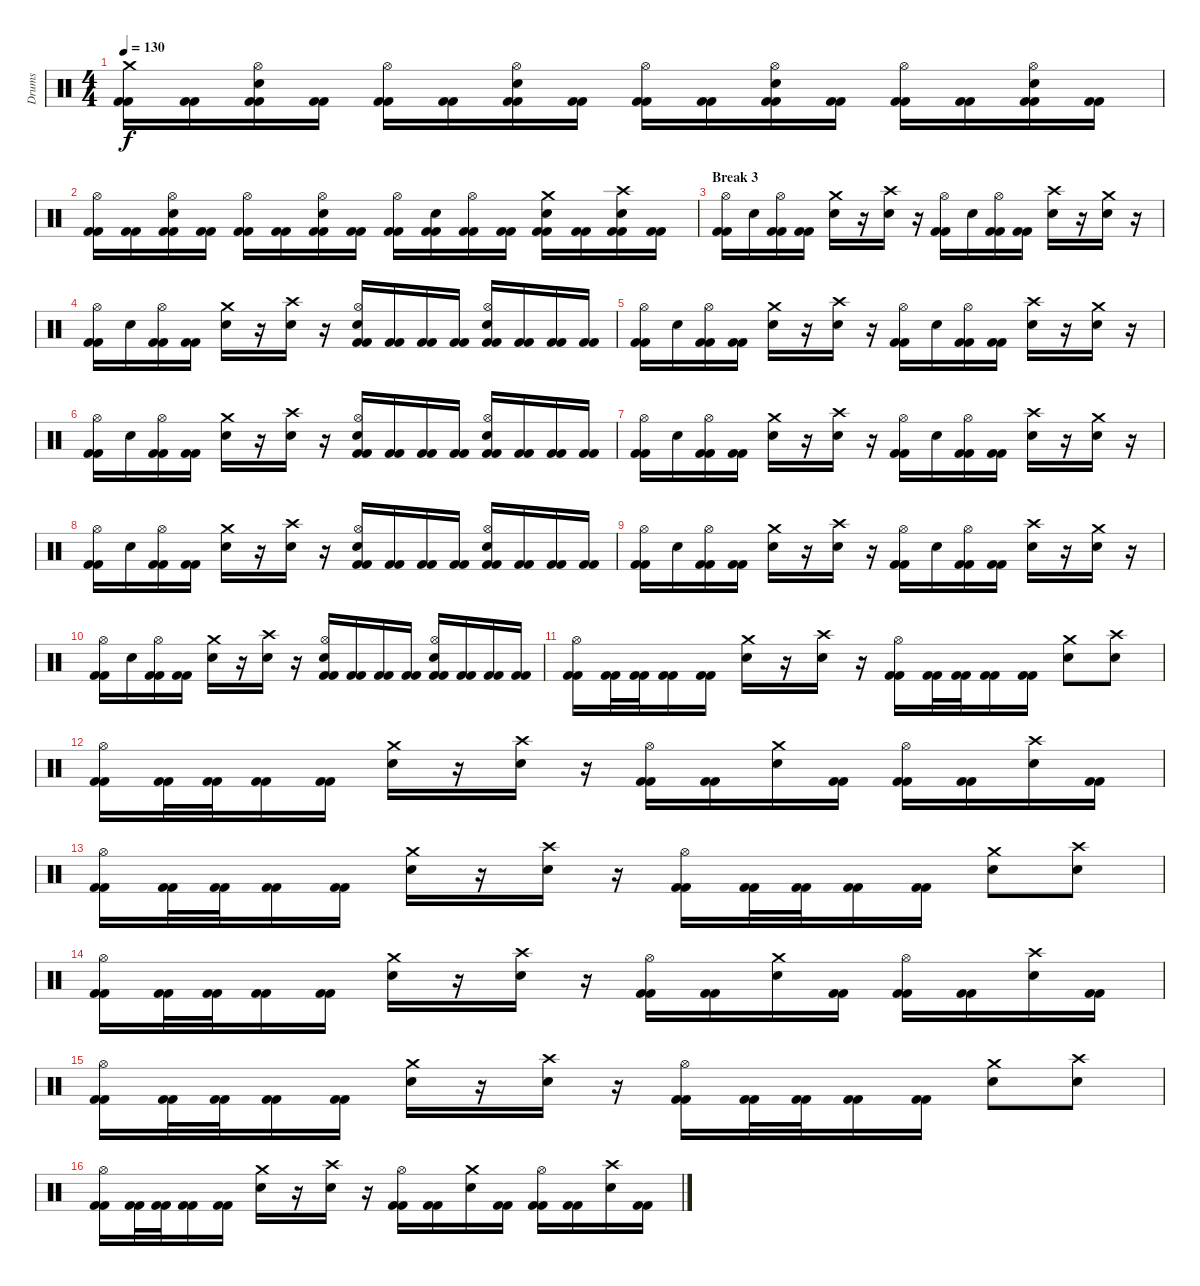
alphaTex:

\track ("Drums" "Drums") {instrument percussion}
\staff {score}
\articulation defaults
\ts (4 4)
\tempo 130
\clef neutral
\ks c
("Crash medium (hit)" "Kick (hit) 2" "Kick (hit) 2").16{dy f} ("Kick (hit) 2" "Kick (hit) 2").16 ("Hi-Hat (open)" "Electric Snare (hit)" "Kick (hit) 2" "Kick (hit) 2").16 ("Kick (hit) 2" "Kick (hit) 2").16 ("Hi-Hat (open)" "Kick (hit) 2" "Kick (hit) 2").16 ("Kick (hit) 2" "Kick (hit) 2").16 ("Hi-Hat (open)" "Electric Snare (hit)" "Kick (hit) 2" "Kick (hit) 2").16 ("Kick (hit) 2" "Kick (hit) 2").16 ("Hi-Hat (open)" "Kick (hit) 2" "Kick (hit) 2").16 ("Kick (hit) 2" "Kick (hit) 2").16 ("Hi-Hat (open)" "Electric Snare (hit)" "Kick (hit) 2" "Kick (hit) 2").16 ("Kick (hit) 2" "Kick (hit) 2").16 ("Hi-Hat (open)" "Kick (hit) 2" "Kick (hit) 2").16 ("Kick (hit) 2" "Kick (hit) 2").16 ("Hi-Hat (open)" "Electric Snare (hit)" "Kick (hit) 2" "Kick (hit) 2").16 ("Kick (hit) 2" "Kick (hit) 2").16 |
("Hi-Hat (open)" "Kick (hit) 2" "Kick (hit) 2").16 ("Kick (hit) 2" "Kick (hit) 2").16 ("Hi-Hat (open)" "Electric Snare (hit)" "Kick (hit) 2" "Kick (hit) 2").16 ("Kick (hit) 2" "Kick (hit) 2").16 ("Hi-Hat (open)" "Kick (hit) 2" "Kick (hit) 2").16 ("Kick (hit) 2" "Kick (hit) 2").16 ("Hi-Hat (open)" "Electric Snare (hit)" "Kick (hit) 2" "Kick (hit) 2").16 ("Kick (hit) 2" "Kick (hit) 2").16 ("Hi-Hat (open)" "Kick (hit) 2" "Kick (hit) 2").16 ("Electric Snare (hit)" "Kick (hit) 2" "Kick (hit) 2").16 ("Hi-Hat (open)" "Kick (hit) 2" "Kick (hit) 2").16 ("Kick (hit) 2" "Kick (hit) 2").16 ("Crash medium (hit)" "Electric Snare (hit)" "Kick (hit) 2" "Kick (hit) 2").16 ("Kick (hit) 2" "Kick (hit) 2").16 ("Crash high (hit)" "Electric Snare (hit)" "Kick (hit) 2" "Kick (hit) 2").16 ("Kick (hit) 2" "Kick (hit) 2").16 |
\section ("" "Break 3")
("Hi-Hat (open)" "Kick (hit) 2" "Kick (hit) 2").16 "Electric Snare (hit)".16 ("Hi-Hat (open)" "Kick (hit) 2" "Kick (hit) 2").16 ("Kick (hit) 2" "Kick (hit) 2").16 ("Crash medium (hit)" "Electric Snare (hit)").16 r.16 ("Crash high (hit)" "Electric Snare (hit)").16 r.16 ("Hi-Hat (open)" "Kick (hit) 2" "Kick (hit) 2").16 "Electric Snare (hit)".16 ("Hi-Hat (open)" "Kick (hit) 2" "Kick (hit) 2").16 ("Kick (hit) 2" "Kick (hit) 2").16 ("Crash high (hit)" "Electric Snare (hit)").16 r.16 ("Crash medium (hit)" "Electric Snare (hit)").16 r.16 |
("Hi-Hat (open)" "Kick (hit) 2" "Kick (hit) 2").16 "Electric Snare (hit)".16 ("Hi-Hat (open)" "Kick (hit) 2" "Kick (hit) 2").16 ("Kick (hit) 2" "Kick (hit) 2").16 ("Crash medium (hit)" "Electric Snare (hit)").16 r.16 ("Crash high (hit)" "Electric Snare (hit)").16 r.16 ("Hi-Hat (open)" "Electric Snare (hit)" "Kick (hit) 2" "Kick (hit) 2").16 ("Kick (hit) 2" "Kick (hit) 2").16 ("Kick (hit) 2" "Kick (hit) 2").16 ("Kick (hit) 2" "Kick (hit) 2").16 ("Hi-Hat (open)" "Electric Snare (hit)" "Kick (hit) 2" "Kick (hit) 2").16 ("Kick (hit) 2" "Kick (hit) 2").16 ("Kick (hit) 2" "Kick (hit) 2").16 ("Kick (hit) 2" "Kick (hit) 2").16 |
("Hi-Hat (open)" "Kick (hit) 2" "Kick (hit) 2").16 "Electric Snare (hit)".16 ("Hi-Hat (open)" "Kick (hit) 2" "Kick (hit) 2").16 ("Kick (hit) 2" "Kick (hit) 2").16 ("Crash medium (hit)" "Electric Snare (hit)").16 r.16 ("Crash high (hit)" "Electric Snare (hit)").16 r.16 ("Hi-Hat (open)" "Kick (hit) 2" "Kick (hit) 2").16 "Electric Snare (hit)".16 ("Hi-Hat (open)" "Kick (hit) 2" "Kick (hit) 2").16 ("Kick (hit) 2" "Kick (hit) 2").16 ("Crash high (hit)" "Electric Snare (hit)").16 r.16 ("Crash medium (hit)" "Electric Snare (hit)").16 r.16 |
("Hi-Hat (open)" "Kick (hit) 2" "Kick (hit) 2").16 "Electric Snare (hit)".16 ("Hi-Hat (open)" "Kick (hit) 2" "Kick (hit) 2").16 ("Kick (hit) 2" "Kick (hit) 2").16 ("Crash medium (hit)" "Electric Snare (hit)").16 r.16 ("Crash high (hit)" "Electric Snare (hit)").16 r.16 ("Hi-Hat (open)" "Electric Snare (hit)" "Kick (hit) 2" "Kick (hit) 2").16 ("Kick (hit) 2" "Kick (hit) 2").16 ("Kick (hit) 2" "Kick (hit) 2").16 ("Kick (hit) 2" "Kick (hit) 2").16 ("Hi-Hat (open)" "Electric Snare (hit)" "Kick (hit) 2" "Kick (hit) 2").16 ("Kick (hit) 2" "Kick (hit) 2").16 ("Kick (hit) 2" "Kick (hit) 2").16 ("Kick (hit) 2" "Kick (hit) 2").16 |
("Hi-Hat (open)" "Kick (hit) 2" "Kick (hit) 2").16 "Electric Snare (hit)".16 ("Hi-Hat (open)" "Kick (hit) 2" "Kick (hit) 2").16 ("Kick (hit) 2" "Kick (hit) 2").16 ("Crash medium (hit)" "Electric Snare (hit)").16 r.16 ("Crash high (hit)" "Electric Snare (hit)").16 r.16 ("Hi-Hat (open)" "Kick (hit) 2" "Kick (hit) 2").16 "Electric Snare (hit)".16 ("Hi-Hat (open)" "Kick (hit) 2" "Kick (hit) 2").16 ("Kick (hit) 2" "Kick (hit) 2").16 ("Crash high (hit)" "Electric Snare (hit)").16 r.16 ("Crash medium (hit)" "Electric Snare (hit)").16 r.16 |
("Hi-Hat (open)" "Kick (hit) 2" "Kick (hit) 2").16 "Electric Snare (hit)".16 ("Hi-Hat (open)" "Kick (hit) 2" "Kick (hit) 2").16 ("Kick (hit) 2" "Kick (hit) 2").16 ("Crash medium (hit)" "Electric Snare (hit)").16 r.16 ("Crash high (hit)" "Electric Snare (hit)").16 r.16 ("Hi-Hat (open)" "Electric Snare (hit)" "Kick (hit) 2" "Kick (hit) 2").16 ("Kick (hit) 2" "Kick (hit) 2").16 ("Kick (hit) 2" "Kick (hit) 2").16 ("Kick (hit) 2" "Kick (hit) 2").16 ("Hi-Hat (open)" "Electric Snare (hit)" "Kick (hit) 2" "Kick (hit) 2").16 ("Kick (hit) 2" "Kick (hit) 2").16 ("Kick (hit) 2" "Kick (hit) 2").16 ("Kick (hit) 2" "Kick (hit) 2").16 |
("Hi-Hat (open)" "Kick (hit) 2" "Kick (hit) 2").16 "Electric Snare (hit)".16 ("Hi-Hat (open)" "Kick (hit) 2" "Kick (hit) 2").16 ("Kick (hit) 2" "Kick (hit) 2").16 ("Crash medium (hit)" "Electric Snare (hit)").16 r.16 ("Crash high (hit)" "Electric Snare (hit)").16 r.16 ("Hi-Hat (open)" "Kick (hit) 2" "Kick (hit) 2").16 "Electric Snare (hit)".16 ("Hi-Hat (open)" "Kick (hit) 2" "Kick (hit) 2").16 ("Kick (hit) 2" "Kick (hit) 2").16 ("Crash high (hit)" "Electric Snare (hit)").16 r.16 ("Crash medium (hit)" "Electric Snare (hit)").16 r.16 |
("Hi-Hat (open)" "Kick (hit) 2" "Kick (hit) 2").16 "Electric Snare (hit)".16 ("Hi-Hat (open)" "Kick (hit) 2" "Kick (hit) 2").16 ("Kick (hit) 2" "Kick (hit) 2").16 ("Crash medium (hit)" "Electric Snare (hit)").16 r.16 ("Crash high (hit)" "Electric Snare (hit)").16 r.16 ("Hi-Hat (open)" "Electric Snare (hit)" "Kick (hit) 2" "Kick (hit) 2").16 ("Kick (hit) 2" "Kick (hit) 2").16 ("Kick (hit) 2" "Kick (hit) 2").16 ("Kick (hit) 2" "Kick (hit) 2").16 ("Hi-Hat (open)" "Electric Snare (hit)" "Kick (hit) 2" "Kick (hit) 2").16 ("Kick (hit) 2" "Kick (hit) 2").16 ("Kick (hit) 2" "Kick (hit) 2").16 ("Kick (hit) 2" "Kick (hit) 2").16 |
("Hi-Hat (open)" "Kick (hit) 2" "Kick (hit) 2").16 ("Kick (hit) 2" "Kick (hit) 2").32 ("Kick (hit) 2" "Kick (hit) 2").32 ("Kick (hit) 2" "Kick (hit) 2").16 ("Kick (hit) 2" "Kick (hit) 2").16 ("Crash medium (hit)" "Electric Snare (hit)").16 r.16 ("Crash high (hit)" "Electric Snare (hit)").16 r.16 ("Hi-Hat (open)" "Kick (hit) 2" "Kick (hit) 2").16 ("Kick (hit) 2" "Kick (hit) 2").32 ("Kick (hit) 2" "Kick (hit) 2").32 ("Kick (hit) 2" "Kick (hit) 2").16 ("Kick (hit) 2" "Kick (hit) 2").16 ("Crash medium (hit)" "Electric Snare (hit)").8 ("Crash high (hit)" "Electric Snare (hit)").8 |
("Hi-Hat (open)" "Kick (hit) 2" "Kick (hit) 2").16 ("Kick (hit) 2" "Kick (hit) 2").32 ("Kick (hit) 2" "Kick (hit) 2").32 ("Kick (hit) 2" "Kick (hit) 2").16 ("Kick (hit) 2" "Kick (hit) 2").16 ("Crash medium (hit)" "Electric Snare (hit)").16 r.16 ("Crash high (hit)" "Electric Snare (hit)").16 r.16 ("Hi-Hat (open)" "Kick (hit) 2" "Kick (hit) 2").16 ("Kick (hit) 2" "Kick (hit) 2").16 ("Crash medium (hit)" "Electric Snare (hit)").16 ("Kick (hit) 2" "Kick (hit) 2").16 ("Hi-Hat (open)" "Kick (hit) 2" "Kick (hit) 2").16 ("Kick (hit) 2" "Kick (hit) 2").16 ("Crash high (hit)" "Electric Snare (hit)").16 ("Kick (hit) 2" "Kick (hit) 2").16 |
("Hi-Hat (open)" "Kick (hit) 2" "Kick (hit) 2").16 ("Kick (hit) 2" "Kick (hit) 2").32 ("Kick (hit) 2" "Kick (hit) 2").32 ("Kick (hit) 2" "Kick (hit) 2").16 ("Kick (hit) 2" "Kick (hit) 2").16 ("Crash medium (hit)" "Electric Snare (hit)").16 r.16 ("Crash high (hit)" "Electric Snare (hit)").16 r.16 ("Hi-Hat (open)" "Kick (hit) 2" "Kick (hit) 2").16 ("Kick (hit) 2" "Kick (hit) 2").32 ("Kick (hit) 2" "Kick (hit) 2").32 ("Kick (hit) 2" "Kick (hit) 2").16 ("Kick (hit) 2" "Kick (hit) 2").16 ("Crash medium (hit)" "Electric Snare (hit)").8 ("Crash high (hit)" "Electric Snare (hit)").8 |
("Hi-Hat (open)" "Kick (hit) 2" "Kick (hit) 2").16 ("Kick (hit) 2" "Kick (hit) 2").32 ("Kick (hit) 2" "Kick (hit) 2").32 ("Kick (hit) 2" "Kick (hit) 2").16 ("Kick (hit) 2" "Kick (hit) 2").16 ("Crash medium (hit)" "Electric Snare (hit)").16 r.16 ("Crash high (hit)" "Electric Snare (hit)").16 r.16 ("Hi-Hat (open)" "Kick (hit) 2" "Kick (hit) 2").16 ("Kick (hit) 2" "Kick (hit) 2").16 ("Crash medium (hit)" "Electric Snare (hit)").16 ("Kick (hit) 2" "Kick (hit) 2").16 ("Hi-Hat (open)" "Kick (hit) 2" "Kick (hit) 2").16 ("Kick (hit) 2" "Kick (hit) 2").16 ("Crash high (hit)" "Electric Snare (hit)").16 ("Kick (hit) 2" "Kick (hit) 2").16 |
("Hi-Hat (open)" "Kick (hit) 2" "Kick (hit) 2").16 ("Kick (hit) 2" "Kick (hit) 2").32 ("Kick (hit) 2" "Kick (hit) 2").32 ("Kick (hit) 2" "Kick (hit) 2").16 ("Kick (hit) 2" "Kick (hit) 2").16 ("Crash medium (hit)" "Electric Snare (hit)").16 r.16 ("Crash high (hit)" "Electric Snare (hit)").16 r.16 ("Hi-Hat (open)" "Kick (hit) 2" "Kick (hit) 2").16 ("Kick (hit) 2" "Kick (hit) 2").32 ("Kick (hit) 2" "Kick (hit) 2").32 ("Kick (hit) 2" "Kick (hit) 2").16 ("Kick (hit) 2" "Kick (hit) 2").16 ("Crash medium (hit)" "Electric Snare (hit)").8 ("Crash high (hit)" "Electric Snare (hit)").8 |
("Hi-Hat (open)" "Kick (hit) 2" "Kick (hit) 2").16 ("Kick (hit) 2" "Kick (hit) 2").32 ("Kick (hit) 2" "Kick (hit) 2").32 ("Kick (hit) 2" "Kick (hit) 2").16 ("Kick (hit) 2" "Kick (hit) 2").16 ("Crash medium (hit)" "Electric Snare (hit)").16 r.16 ("Crash high (hit)" "Electric Snare (hit)").16 r.16 ("Hi-Hat (open)" "Kick (hit) 2" "Kick (hit) 2").16 ("Kick (hit) 2" "Kick (hit) 2").16 ("Crash medium (hit)" "Electric Snare (hit)").16 ("Kick (hit) 2" "Kick (hit) 2").16 ("Hi-Hat (open)" "Kick (hit) 2" "Kick (hit) 2").16 ("Kick (hit) 2" "Kick (hit) 2").16 ("Crash high (hit)" "Electric Snare (hit)").16 ("Kick (hit) 2" "Kick (hit) 2").16
